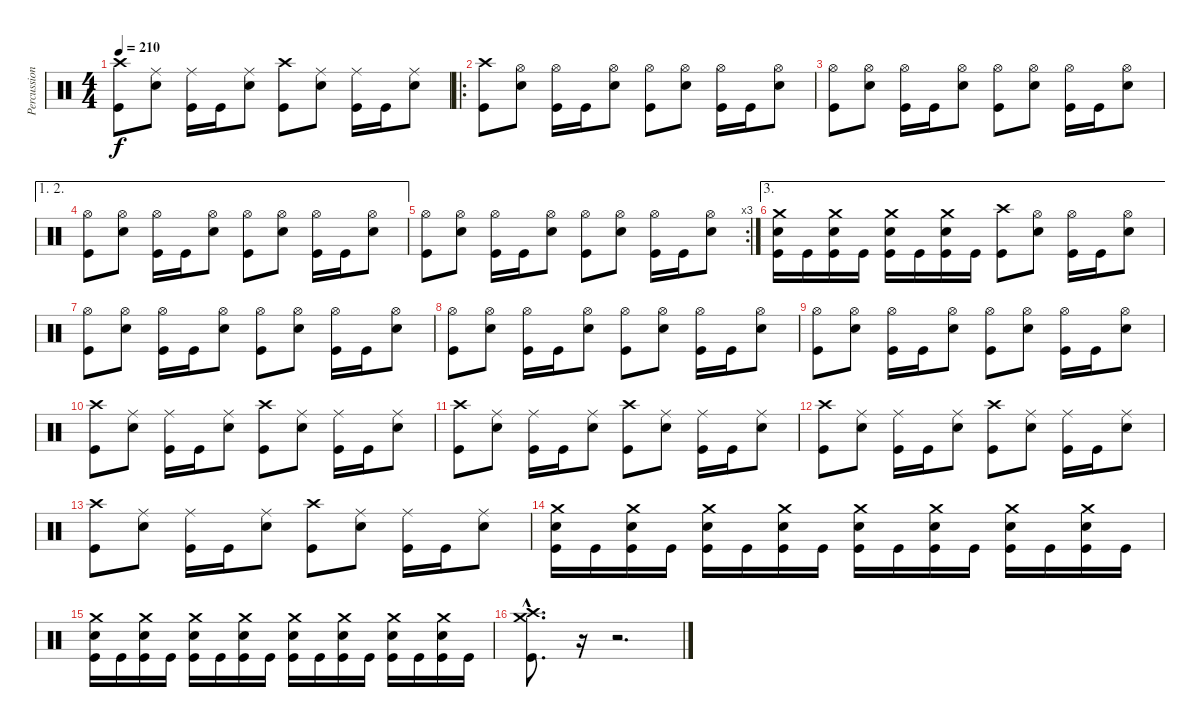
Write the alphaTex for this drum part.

\track ("Percussion" "Percussion") {instrument percussion}
\staff {score}
\articulation defaults
\ts (4 4)
\tempo 210
\clef neutral
\ks c
("Crash high (hit)" "Kick (hit)").8{dy f} ("Ride (middle)" "Electric Snare (hit)").8 ("Ride (middle)" "Kick (hit)").16 "Kick (hit)".16 ("Ride (middle)" "Electric Snare (hit)").8 ("Crash high (hit)" "Kick (hit)").8 ("Ride (middle)" "Electric Snare (hit)").8 ("Ride (middle)" "Kick (hit)").16 "Kick (hit)".16 ("Ride (middle)" "Electric Snare (hit)").8 |
\ro
("Crash high (hit)" "Kick (hit)").8 ("Hi-Hat (open)" "Electric Snare (hit)").8 ("Hi-Hat (open)" "Kick (hit)").16 "Kick (hit)".16 ("Hi-Hat (open)" "Electric Snare (hit)").8 ("Hi-Hat (open)" "Kick (hit)").8 ("Hi-Hat (open)" "Electric Snare (hit)").8 ("Hi-Hat (open)" "Kick (hit)").16 "Kick (hit)".16 ("Hi-Hat (open)" "Electric Snare (hit)").8 |
("Hi-Hat (open)" "Kick (hit)").8 ("Hi-Hat (open)" "Electric Snare (hit)").8 ("Hi-Hat (open)" "Kick (hit)").16 "Kick (hit)".16 ("Hi-Hat (open)" "Electric Snare (hit)").8 ("Hi-Hat (open)" "Kick (hit)").8 ("Hi-Hat (open)" "Electric Snare (hit)").8 ("Hi-Hat (open)" "Kick (hit)").16 "Kick (hit)".16 ("Hi-Hat (open)" "Electric Snare (hit)").8 |
\ae (1 2)
("Hi-Hat (open)" "Kick (hit)").8 ("Hi-Hat (open)" "Electric Snare (hit)").8 ("Hi-Hat (open)" "Kick (hit)").16 "Kick (hit)".16 ("Hi-Hat (open)" "Electric Snare (hit)").8 ("Hi-Hat (open)" "Kick (hit)").8 ("Hi-Hat (open)" "Electric Snare (hit)").8 ("Hi-Hat (open)" "Kick (hit)").16 "Kick (hit)".16 ("Hi-Hat (open)" "Electric Snare (hit)").8 |
\rc 3
("Hi-Hat (open)" "Kick (hit)").8 ("Hi-Hat (open)" "Electric Snare (hit)").8 ("Hi-Hat (open)" "Kick (hit)").16 "Kick (hit)".16 ("Hi-Hat (open)" "Electric Snare (hit)").8 ("Hi-Hat (open)" "Kick (hit)").8 ("Hi-Hat (open)" "Electric Snare (hit)").8 ("Hi-Hat (open)" "Kick (hit)").16 "Kick (hit)".16 ("Hi-Hat (open)" "Electric Snare (hit)").8 |
\ae 3
("Crash medium (hit)" "Electric Snare (hit)" "Kick (hit)").16 "Kick (hit)".16 ("Crash medium (hit)" "Electric Snare (hit)" "Kick (hit)").16 "Kick (hit)".16 ("Crash medium (hit)" "Electric Snare (hit)" "Kick (hit)").16 "Kick (hit)".16 ("Crash medium (hit)" "Electric Snare (hit)" "Kick (hit)").16 "Kick (hit)".16 ("Crash high (hit)" "Kick (hit)").8 ("Hi-Hat (open)" "Electric Snare (hit)").8 ("Hi-Hat (open)" "Kick (hit)").16 "Kick (hit)".16 ("Hi-Hat (open)" "Electric Snare (hit)").8 |
("Hi-Hat (open)" "Kick (hit)").8 ("Hi-Hat (open)" "Electric Snare (hit)").8 ("Hi-Hat (open)" "Kick (hit)").16 "Kick (hit)".16 ("Hi-Hat (open)" "Electric Snare (hit)").8 ("Hi-Hat (open)" "Kick (hit)").8 ("Hi-Hat (open)" "Electric Snare (hit)").8 ("Hi-Hat (open)" "Kick (hit)").16 "Kick (hit)".16 ("Hi-Hat (open)" "Electric Snare (hit)").8 |
("Hi-Hat (open)" "Kick (hit)").8 ("Hi-Hat (open)" "Electric Snare (hit)").8 ("Hi-Hat (open)" "Kick (hit)").16 "Kick (hit)".16 ("Hi-Hat (open)" "Electric Snare (hit)").8 ("Hi-Hat (open)" "Kick (hit)").8 ("Hi-Hat (open)" "Electric Snare (hit)").8 ("Hi-Hat (open)" "Kick (hit)").16 "Kick (hit)".16 ("Hi-Hat (open)" "Electric Snare (hit)").8 |
("Hi-Hat (open)" "Kick (hit)").8 ("Hi-Hat (open)" "Electric Snare (hit)").8 ("Hi-Hat (open)" "Kick (hit)").16 "Kick (hit)".16 ("Hi-Hat (open)" "Electric Snare (hit)").8 ("Hi-Hat (open)" "Kick (hit)").8 ("Hi-Hat (open)" "Electric Snare (hit)").8 ("Hi-Hat (open)" "Kick (hit)").16 "Kick (hit)".16 ("Hi-Hat (open)" "Electric Snare (hit)").8 |
("Crash high (hit)" "Kick (hit)").8 ("Ride (middle)" "Electric Snare (hit)").8 ("Ride (middle)" "Kick (hit)").16 "Kick (hit)".16 ("Ride (middle)" "Electric Snare (hit)").8 ("Crash high (hit)" "Kick (hit)").8 ("Ride (middle)" "Electric Snare (hit)").8 ("Ride (middle)" "Kick (hit)").16 "Kick (hit)".16 ("Ride (middle)" "Electric Snare (hit)").8 |
("Crash high (hit)" "Kick (hit)").8 ("Ride (middle)" "Electric Snare (hit)").8 ("Ride (middle)" "Kick (hit)").16 "Kick (hit)".16 ("Ride (middle)" "Electric Snare (hit)").8 ("Crash high (hit)" "Kick (hit)").8 ("Ride (middle)" "Electric Snare (hit)").8 ("Ride (middle)" "Kick (hit)").16 "Kick (hit)".16 ("Ride (middle)" "Electric Snare (hit)").8 |
("Crash high (hit)" "Kick (hit)").8 ("Ride (middle)" "Electric Snare (hit)").8 ("Ride (middle)" "Kick (hit)").16 "Kick (hit)".16 ("Ride (middle)" "Electric Snare (hit)").8 ("Crash high (hit)" "Kick (hit)").8 ("Ride (middle)" "Electric Snare (hit)").8 ("Ride (middle)" "Kick (hit)").16 "Kick (hit)".16 ("Ride (middle)" "Electric Snare (hit)").8 |
("Crash high (hit)" "Kick (hit)").8 ("Ride (middle)" "Electric Snare (hit)").8 ("Ride (middle)" "Kick (hit)").16 "Kick (hit)".16 ("Ride (middle)" "Electric Snare (hit)").8 ("Crash high (hit)" "Kick (hit)").8 ("Ride (middle)" "Electric Snare (hit)").8 ("Ride (middle)" "Kick (hit)").16 "Kick (hit)".16 ("Ride (middle)" "Electric Snare (hit)").8 |
("Crash medium (hit)" "Electric Snare (hit)" "Kick (hit)").16 "Kick (hit)".16 ("Crash medium (hit)" "Electric Snare (hit)" "Kick (hit)").16 "Kick (hit)".16 ("Crash medium (hit)" "Electric Snare (hit)" "Kick (hit)").16 "Kick (hit)".16 ("Crash medium (hit)" "Electric Snare (hit)" "Kick (hit)").16 "Kick (hit)".16 ("Crash medium (hit)" "Electric Snare (hit)" "Kick (hit)").16 "Kick (hit)".16 ("Crash medium (hit)" "Electric Snare (hit)" "Kick (hit)").16 "Kick (hit)".16 ("Crash medium (hit)" "Electric Snare (hit)" "Kick (hit)").16 "Kick (hit)".16 ("Crash medium (hit)" "Electric Snare (hit)" "Kick (hit)").16 "Kick (hit)".16 |
("Crash medium (hit)" "Electric Snare (hit)" "Kick (hit)").16 "Kick (hit)".16 ("Crash medium (hit)" "Electric Snare (hit)" "Kick (hit)").16 "Kick (hit)".16 ("Crash medium (hit)" "Electric Snare (hit)" "Kick (hit)").16 "Kick (hit)".16 ("Crash medium (hit)" "Electric Snare (hit)" "Kick (hit)").16 "Kick (hit)".16 ("Crash medium (hit)" "Electric Snare (hit)" "Kick (hit)").16 "Kick (hit)".16 ("Crash medium (hit)" "Electric Snare (hit)" "Kick (hit)").16 "Kick (hit)".16 ("Crash medium (hit)" "Electric Snare (hit)" "Kick (hit)").16 "Kick (hit)".16 ("Crash medium (hit)" "Electric Snare (hit)" "Kick (hit)").16 "Kick (hit)".16 |
("Crash medium (hit)"{hac} "Crash high (hit)"{hac} "Kick (hit)"{hac}).8{d} r.16{volume 0} r.2{d}
